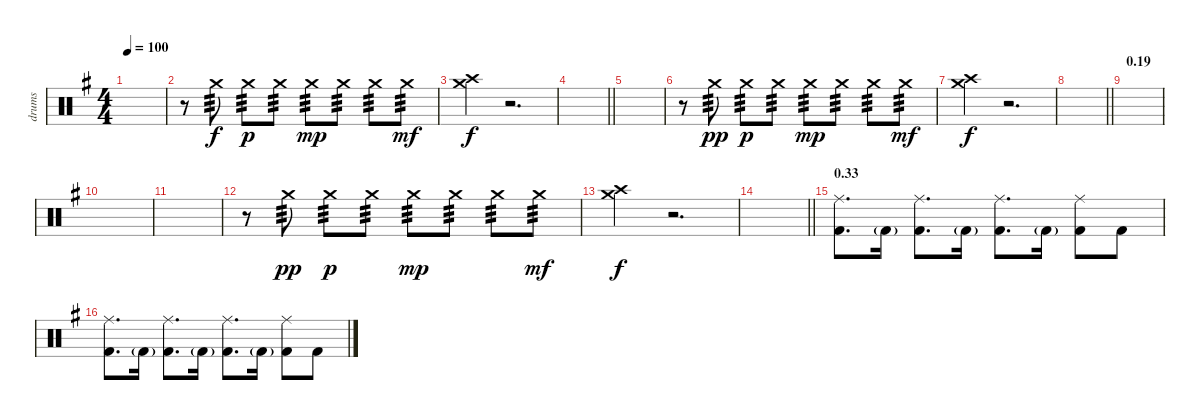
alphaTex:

\track ("drums" "drums") {instrument percussion}
\staff {score}
\articulation defaults
\ts (4 4)
\tempo 100
\clef neutral
\ks g
|
r.8 "Crash medium (hit)".8{tp 3} "Crash medium (hit)".8{tp 3 dy p} "Crash medium (hit)".8{tp 3} "Crash medium (hit)".8{tp 3 dy mp} "Crash medium (hit)".8{tp 3} "Crash medium (hit)".8{tp 3} "Crash medium (hit)".8{tp 3 dy mf} |
("Crash high (hit)" "Crash medium (hit)").4{dy f} r.2{d} |
\barLineRight lightlight
|
|
r.8 "Crash medium (hit)".8{tp 3 dy pp} "Crash medium (hit)".8{tp 3 dy p} "Crash medium (hit)".8{tp 3} "Crash medium (hit)".8{tp 3 dy mp} "Crash medium (hit)".8{tp 3} "Crash medium (hit)".8{tp 3} "Crash medium (hit)".8{tp 3 dy mf} |
("Crash high (hit)" "Crash medium (hit)").4{dy f} r.2{d} |
\barLineRight lightlight
|
\section ("" "0.19")
|
|
|
r.8 "Crash medium (hit)".8{tp 3 dy pp} "Crash medium (hit)".8{tp 3 dy p} "Crash medium (hit)".8{tp 3} "Crash medium (hit)".8{tp 3 dy mp} "Crash medium (hit)".8{tp 3} "Crash medium (hit)".8{tp 3} "Crash medium (hit)".8{tp 3 dy mf} |
("Crash high (hit)" "Crash medium (hit)").4{dy f} r.2{d} |
\barLineRight lightlight
|
\section ("" "0.33")
("Ride (middle)" "Kick (hit) 2").8{d} "Kick (hit) 2"{g}.16 ("Ride (middle)" "Kick (hit) 2").8{d} "Kick (hit) 2"{g}.16 ("Ride (middle)" "Kick (hit) 2").8{d} "Kick (hit) 2"{g}.16 ("Ride (middle)" "Kick (hit) 2").8 "Kick (hit) 2".8 |
("Ride (middle)" "Kick (hit) 2").8{d} "Kick (hit) 2"{g}.16 ("Ride (middle)" "Kick (hit) 2").8{d} "Kick (hit) 2"{g}.16 ("Ride (middle)" "Kick (hit) 2").8{d} "Kick (hit) 2"{g}.16 ("Ride (middle)" "Kick (hit) 2").8 "Kick (hit) 2".8
